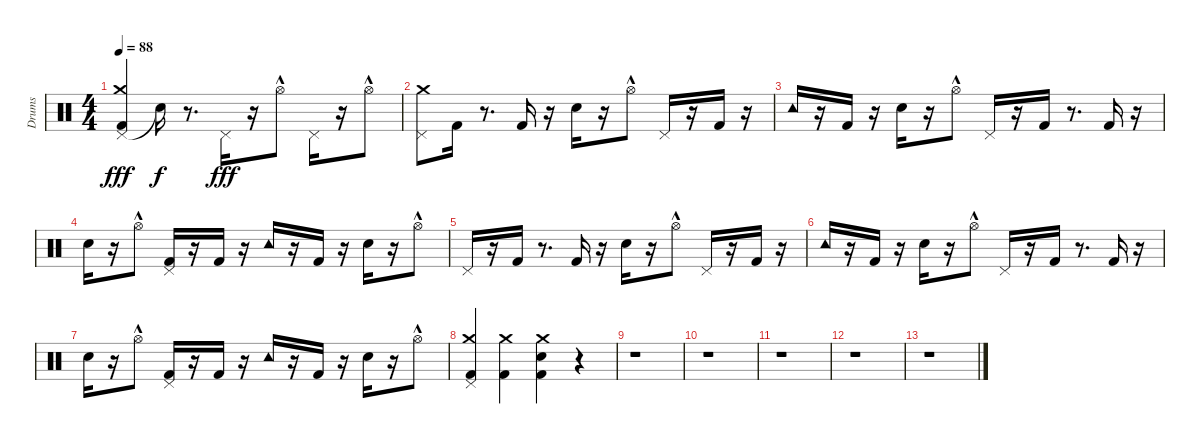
\track ("Drums" "Drums") {instrument percussion}
\staff {score}
\articulation defaults
\ts (4 4)
\tempo 88
\clef neutral
\ks c
("Pedal Hi-Hat (hit)" "Crash medium (hit)" "Kick (hit) 2").4{dy fff} "Snare (hit)"{t}.16{dy f} r.8{d} "Pedal Hi-Hat (hit)".16{dy fff} r.16 "Hi-Hat (open)"{hac}.8 "Pedal Hi-Hat (hit)".16 r.16 "Hi-Hat (open)"{hac}.8 |
("Crash medium (hit)" "Pedal Hi-Hat (hit)").8 "Kick (hit) 2".16 r.8{d} "Kick (hit) 2".16 r.16 "Snare (hit) 2".16 r.16 "Hi-Hat (open)"{hac}.8 "Pedal Hi-Hat (hit)".16 r.16 "Kick (hit) 2".16 r.16 |
"Tambourine (hit)".16 r.16 "Kick (hit) 2".16 r.16 "Snare (hit) 2".16 r.16 "Hi-Hat (open)"{hac}.8 "Pedal Hi-Hat (hit)".16 r.16 "Kick (hit) 2".16 r.8{d} "Kick (hit) 2".16 r.16 |
"Snare (hit) 2".16 r.16 "Hi-Hat (open)"{hac}.8 ("Pedal Hi-Hat (hit)" "Kick (hit) 2").16 r.16 "Kick (hit) 2".16 r.16 "Tambourine (hit)".16 r.16 "Kick (hit) 2".16 r.16 "Snare (hit) 2".16 r.16 "Hi-Hat (open)"{hac}.8 |
"Pedal Hi-Hat (hit)".16 r.16 "Kick (hit) 2".16 r.8{d} "Kick (hit) 2".16 r.16 "Snare (hit) 2".16 r.16 "Hi-Hat (open)"{hac}.8 "Pedal Hi-Hat (hit)".16 r.16 "Kick (hit) 2".16 r.16 |
"Tambourine (hit)".16 r.16 "Kick (hit) 2".16 r.16 "Snare (hit) 2".16 r.16 "Hi-Hat (open)"{hac}.8 "Pedal Hi-Hat (hit)".16 r.16 "Kick (hit) 2".16 r.8{d} "Kick (hit) 2".16 r.16 |
"Snare (hit) 2".16 r.16 "Hi-Hat (open)"{hac}.8 ("Pedal Hi-Hat (hit)" "Kick (hit) 2").16 r.16 "Kick (hit) 2".16 r.16 "Tambourine (hit)".16 r.16 "Kick (hit) 2".16 r.16 "Snare (hit) 2".16 r.16 "Hi-Hat (open)"{hac}.8 |
("Kick (hit) 2" "Crash medium (hit)" "Pedal Hi-Hat (hit)").4 ("Kick (hit) 2" "Crash medium (hit)").4 ("Kick (hit) 2" "Crash medium (hit)" "Snare (hit) 2").4 r.4 |
r.1 |
r.1 |
r.1 |
r.1 |
r.1
